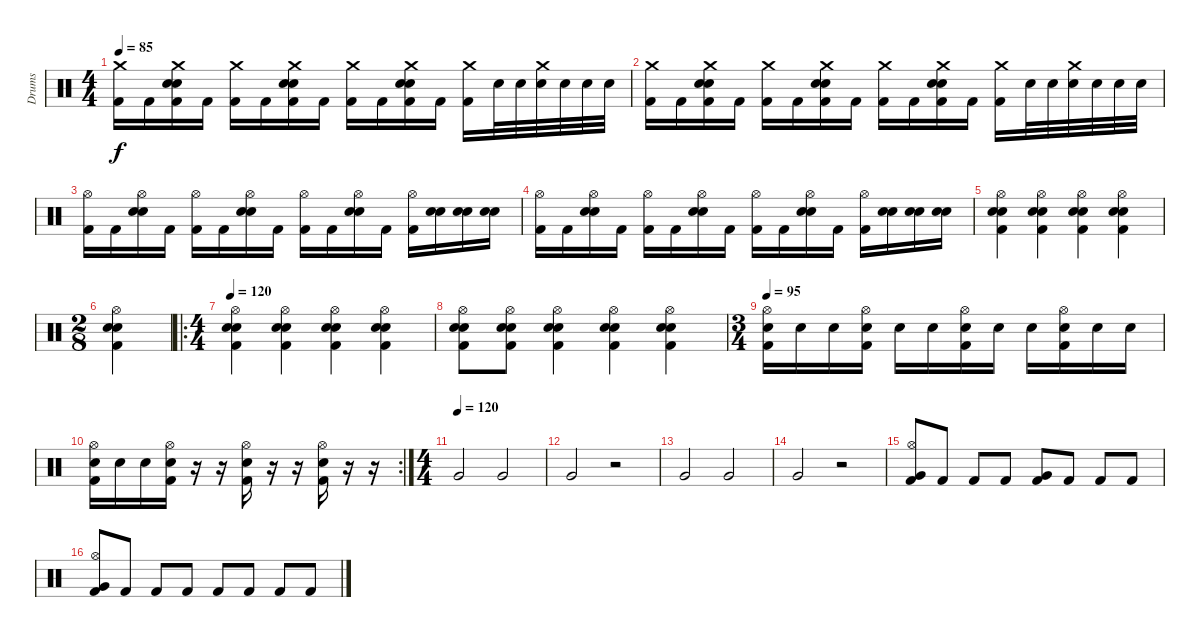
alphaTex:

\track ("Drums" "Drums") {instrument percussion}
\staff {score}
\articulation defaults
\ts (4 4)
\tempo 85
\clef neutral
\ks c
("Crash medium (hit)" "Kick (hit) 2").16{dy f} "Kick (hit) 2".16 ("Crash medium (hit)" "Electric Snare (hit)" "Electric Snare (hit)" "Kick (hit) 2").16 "Kick (hit) 2".16 ("Crash medium (hit)" "Kick (hit) 2").16 "Kick (hit) 2".16 ("Crash medium (hit)" "Electric Snare (hit)" "Electric Snare (hit)" "Kick (hit) 2").16 "Kick (hit) 2".16 ("Crash medium (hit)" "Kick (hit) 2").16 "Kick (hit) 2".16 ("Crash medium (hit)" "Electric Snare (hit)" "Electric Snare (hit)" "Kick (hit) 2").16 "Kick (hit) 2".16 ("Crash medium (hit)" "Kick (hit) 2").16 "Electric Snare (hit)".32 "Electric Snare (hit)".32 ("Crash medium (hit)" "Electric Snare (hit)").32 "Electric Snare (hit)".32 "Electric Snare (hit)".32 "Electric Snare (hit)".32 |
("Crash medium (hit)" "Kick (hit) 2").16 "Kick (hit) 2".16 ("Crash medium (hit)" "Electric Snare (hit)" "Electric Snare (hit)" "Kick (hit) 2").16 "Kick (hit) 2".16 ("Crash medium (hit)" "Kick (hit) 2").16 "Kick (hit) 2".16 ("Crash medium (hit)" "Electric Snare (hit)" "Electric Snare (hit)" "Kick (hit) 2").16 "Kick (hit) 2".16 ("Crash medium (hit)" "Kick (hit) 2").16 "Kick (hit) 2".16 ("Crash medium (hit)" "Electric Snare (hit)" "Electric Snare (hit)" "Kick (hit) 2").16 "Kick (hit) 2".16 ("Crash medium (hit)" "Kick (hit) 2").16 "Electric Snare (hit)".32 "Electric Snare (hit)".32 ("Crash medium (hit)" "Electric Snare (hit)").32 "Electric Snare (hit)".32 "Electric Snare (hit)".32 "Electric Snare (hit)".32 |
("Hi-Hat (open)" "Kick (hit) 2").16 "Kick (hit) 2".16 ("Hi-Hat (open)" "Electric Snare (hit)" "Electric Snare (hit)").16 "Kick (hit) 2".16 ("Hi-Hat (open)" "Kick (hit) 2").16 "Kick (hit) 2".16 ("Hi-Hat (open)" "Electric Snare (hit)" "Electric Snare (hit)").16 "Kick (hit) 2".16 ("Hi-Hat (open)" "Kick (hit) 2").16 "Kick (hit) 2".16 ("Hi-Hat (open)" "Electric Snare (hit)" "Electric Snare (hit)").16 "Kick (hit) 2".16 ("Hi-Hat (open)" "Kick (hit) 2").16 ("Electric Snare (hit)" "Electric Snare (hit)").16 ("Electric Snare (hit)" "Electric Snare (hit)").16 ("Electric Snare (hit)" "Electric Snare (hit)").16 |
("Hi-Hat (open)" "Kick (hit) 2").16 "Kick (hit) 2".16 ("Hi-Hat (open)" "Electric Snare (hit)" "Electric Snare (hit)").16 "Kick (hit) 2".16 ("Hi-Hat (open)" "Kick (hit) 2").16 "Kick (hit) 2".16 ("Hi-Hat (open)" "Electric Snare (hit)" "Electric Snare (hit)").16 "Kick (hit) 2".16 ("Hi-Hat (open)" "Kick (hit) 2").16 "Kick (hit) 2".16 ("Hi-Hat (open)" "Electric Snare (hit)" "Electric Snare (hit)").16 "Kick (hit) 2".16 ("Hi-Hat (open)" "Kick (hit) 2").16 ("Electric Snare (hit)" "Electric Snare (hit)").16 ("Electric Snare (hit)" "Electric Snare (hit)").16 ("Electric Snare (hit)" "Electric Snare (hit)").16 |
("Hi-Hat (open)" "Electric Snare (hit)" "Electric Snare (hit)" "Kick (hit) 2").4 ("Hi-Hat (open)" "Electric Snare (hit)" "Electric Snare (hit)" "Kick (hit) 2").4 ("Hi-Hat (open)" "Electric Snare (hit)" "Electric Snare (hit)" "Kick (hit) 2").4 ("Hi-Hat (open)" "Electric Snare (hit)" "Electric Snare (hit)" "Kick (hit) 2").4 |
\ts (2 8)
("Hi-Hat (open)" "Electric Snare (hit)" "Electric Snare (hit)" "Kick (hit) 2").4 |
\ro
\ts (4 4)
\tempo 120
("Hi-Hat (open)" "Electric Snare (hit)" "Electric Snare (hit)" "Kick (hit) 2").4 ("Hi-Hat (open)" "Electric Snare (hit)" "Electric Snare (hit)" "Kick (hit) 2").4 ("Hi-Hat (open)" "Electric Snare (hit)" "Electric Snare (hit)" "Kick (hit) 2").4 ("Hi-Hat (open)" "Electric Snare (hit)" "Electric Snare (hit)" "Kick (hit) 2").4 |
("Hi-Hat (open)" "Electric Snare (hit)" "Electric Snare (hit)" "Kick (hit) 2").8 ("Hi-Hat (open)" "Electric Snare (hit)" "Electric Snare (hit)" "Kick (hit) 2").8 ("Hi-Hat (open)" "Electric Snare (hit)" "Electric Snare (hit)" "Kick (hit) 2").4 ("Hi-Hat (open)" "Electric Snare (hit)" "Electric Snare (hit)" "Kick (hit) 2").4 ("Hi-Hat (open)" "Electric Snare (hit)" "Electric Snare (hit)" "Kick (hit) 2").4 |
\ts (3 4)
\tempo 95
("Hi-Hat (open)" "Electric Snare (hit)" "Kick (hit) 2").16 "Electric Snare (hit)".16 "Electric Snare (hit)".16 ("Hi-Hat (open)" "Electric Snare (hit)" "Kick (hit) 2").16 "Electric Snare (hit)".16 "Electric Snare (hit)".16 ("Hi-Hat (open)" "Electric Snare (hit)" "Kick (hit) 2").16 "Electric Snare (hit)".16 "Electric Snare (hit)".16 ("Hi-Hat (open)" "Electric Snare (hit)" "Kick (hit) 2").16 "Electric Snare (hit)".16 "Electric Snare (hit)".16 |
\rc 2
("Hi-Hat (open)" "Electric Snare (hit)" "Kick (hit) 2").16 "Electric Snare (hit)".16 "Electric Snare (hit)".16 ("Hi-Hat (open)" "Electric Snare (hit)" "Kick (hit) 2").16 r.16 r.16 ("Hi-Hat (open)" "Electric Snare (hit)" "Kick (hit) 2").16 r.16 r.16 ("Hi-Hat (open)" "Electric Snare (hit)" "Kick (hit) 2").16 r.16 r.16 |
\ts (4 4)
\tempo (120)
"Very Low Tom (hit)".2 "Very Low Tom (hit)".2 |
"Very Low Tom (hit)".2 r.2 |
"Very Low Tom (hit)".2 "Very Low Tom (hit)".2 |
"Very Low Tom (hit)".2 r.2 |
("Hi-Hat (open)" "Very Low Tom (hit)" "Kick (hit) 2").8 "Kick (hit) 2".8 "Kick (hit) 2".8 "Kick (hit) 2".8 ("Very Low Tom (hit)" "Kick (hit) 2").8 "Kick (hit) 2".8 "Kick (hit) 2".8 "Kick (hit) 2".8 |
("Hi-Hat (open)" "Very Low Tom (hit)" "Kick (hit) 2").8 "Kick (hit) 2".8 "Kick (hit) 2".8 "Kick (hit) 2".8 "Kick (hit) 2".8 "Kick (hit) 2".8 "Kick (hit) 2".8 "Kick (hit) 2".8
